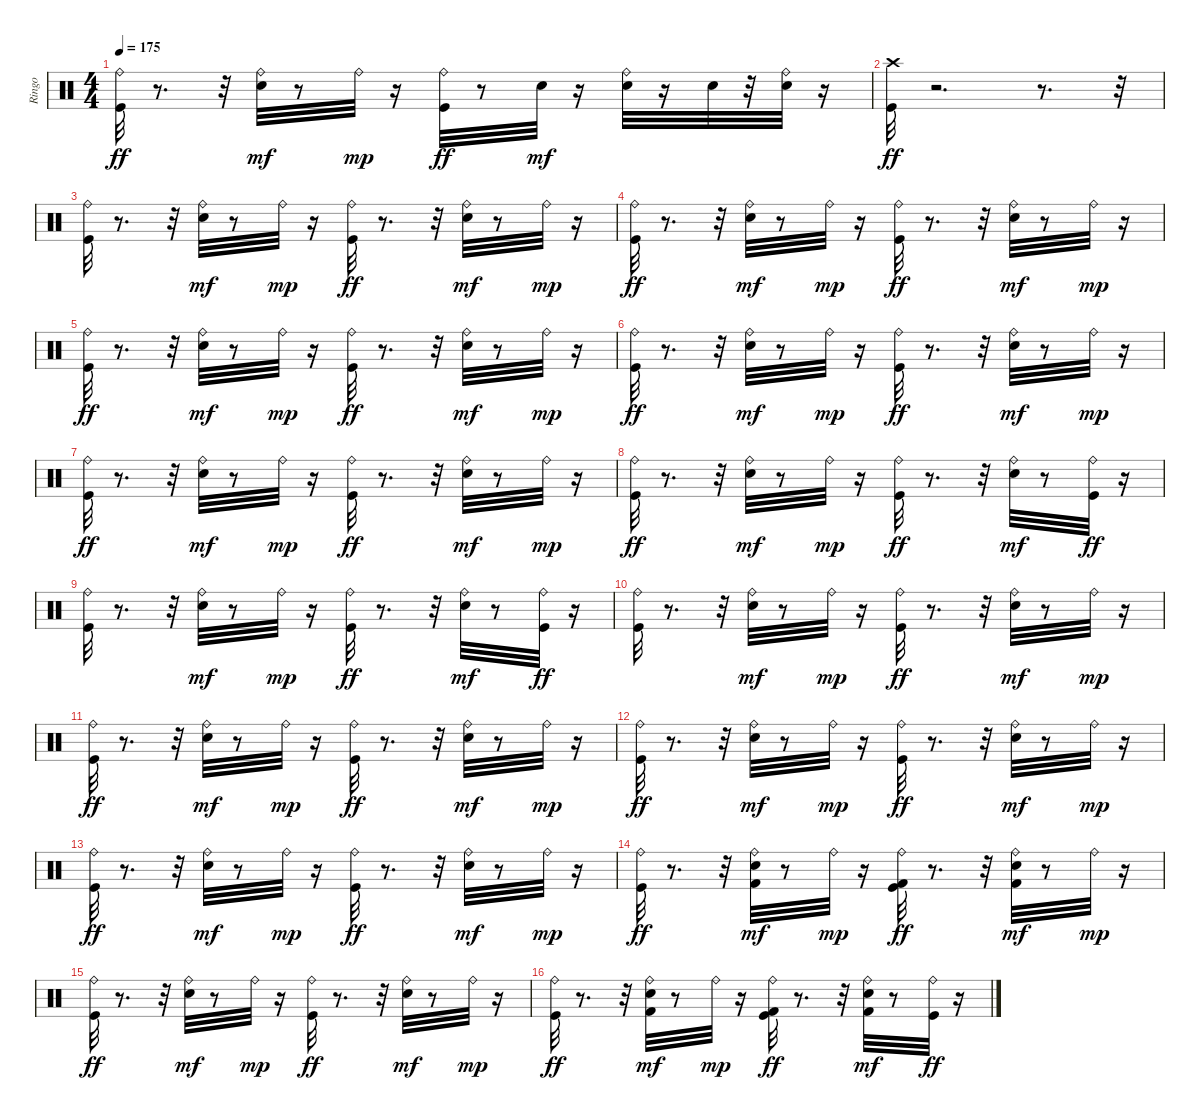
\track ("Ringo" "Ringo") {instrument percussion}
\staff {score}
\articulation defaults
\ts (4 4)
\tempo 175
\clef neutral
\ks c
("Ride (bell)" "Kick (hit)").32{dy ff} r.8{d} r.32 ("Ride (bell)" "Snare (hit) 2").32{dy mf} r.8 "Ride (bell)".32{dy mp} r.16 ("Ride (bell)" "Kick (hit)").32{dy ff} r.8 "Snare (hit) 2".32{dy mf} r.16 ("Ride (bell)" "Snare (hit) 2").32 r.16 "Snare (hit) 2".32 r.32 ("Ride (bell)" "Snare (hit) 2").32 r.16 |
("Kick (hit)" "Crash high (hit)").32{dy ff} r.2{d} r.8{d} r.32 |
("Ride (bell)" "Kick (hit)").32 r.8{d} r.32 ("Ride (bell)" "Snare (hit) 2").32{dy mf} r.8 "Ride (bell)".32{dy mp} r.16 ("Ride (bell)" "Kick (hit)").32{dy ff} r.8{d} r.32 ("Ride (bell)" "Snare (hit) 2").32{dy mf} r.8 "Ride (bell)".32{dy mp} r.16 |
("Ride (bell)" "Kick (hit)").32{dy ff} r.8{d} r.32 ("Ride (bell)" "Snare (hit) 2").32{dy mf} r.8 "Ride (bell)".32{dy mp} r.16 ("Ride (bell)" "Kick (hit)").32{dy ff} r.8{d} r.32 ("Ride (bell)" "Snare (hit) 2").32{dy mf} r.8 "Ride (bell)".32{dy mp} r.16 |
("Ride (bell)" "Kick (hit)").32{dy ff} r.8{d} r.32 ("Ride (bell)" "Snare (hit) 2").32{dy mf} r.8 "Ride (bell)".32{dy mp} r.16 ("Ride (bell)" "Kick (hit)").32{dy ff} r.8{d} r.32 ("Ride (bell)" "Snare (hit) 2").32{dy mf} r.8 "Ride (bell)".32{dy mp} r.16 |
("Ride (bell)" "Kick (hit)").32{dy ff} r.8{d} r.32 ("Ride (bell)" "Snare (hit) 2").32{dy mf} r.8 "Ride (bell)".32{dy mp} r.16 ("Ride (bell)" "Kick (hit)").32{dy ff} r.8{d} r.32 ("Ride (bell)" "Snare (hit) 2").32{dy mf} r.8 "Ride (bell)".32{dy mp} r.16 |
("Ride (bell)" "Kick (hit)").32{dy ff} r.8{d} r.32 ("Ride (bell)" "Snare (hit) 2").32{dy mf} r.8 "Ride (bell)".32{dy mp} r.16 ("Ride (bell)" "Kick (hit)").32{dy ff} r.8{d} r.32 ("Ride (bell)" "Snare (hit) 2").32{dy mf} r.8 "Ride (bell)".32{dy mp} r.16 |
("Ride (bell)" "Kick (hit)").32{dy ff} r.8{d} r.32 ("Ride (bell)" "Snare (hit) 2").32{dy mf} r.8 "Ride (bell)".32{dy mp} r.16 ("Ride (bell)" "Kick (hit)").32{dy ff} r.8{d} r.32 ("Ride (bell)" "Snare (hit) 2").32{dy mf} r.8 ("Ride (bell)" "Kick (hit)").32{dy ff} r.16 |
("Ride (bell)" "Kick (hit)").32 r.8{d} r.32 ("Ride (bell)" "Snare (hit) 2").32{dy mf} r.8 "Ride (bell)".32{dy mp} r.16 ("Ride (bell)" "Kick (hit)").32{dy ff} r.8{d} r.32 ("Ride (bell)" "Snare (hit) 2").32{dy mf} r.8 ("Ride (bell)" "Kick (hit)").32{dy ff} r.16 |
("Ride (bell)" "Kick (hit)").32 r.8{d} r.32 ("Ride (bell)" "Snare (hit) 2").32{dy mf} r.8 "Ride (bell)".32{dy mp} r.16 ("Ride (bell)" "Kick (hit)").32{dy ff} r.8{d} r.32 ("Ride (bell)" "Snare (hit) 2").32{dy mf} r.8 "Ride (bell)".32{dy mp} r.16 |
("Ride (bell)" "Kick (hit)").32{dy ff} r.8{d} r.32 ("Ride (bell)" "Snare (hit) 2").32{dy mf} r.8 "Ride (bell)".32{dy mp} r.16 ("Ride (bell)" "Kick (hit)").32{dy ff} r.8{d} r.32 ("Ride (bell)" "Snare (hit) 2").32{dy mf} r.8 "Ride (bell)".32{dy mp} r.16 |
("Ride (bell)" "Kick (hit)").32{dy ff} r.8{d} r.32 ("Ride (bell)" "Snare (hit) 2").32{dy mf} r.8 "Ride (bell)".32{dy mp} r.16 ("Ride (bell)" "Kick (hit)").32{dy ff} r.8{d} r.32 ("Ride (bell)" "Snare (hit) 2").32{dy mf} r.8 "Ride (bell)".32{dy mp} r.16 |
("Ride (bell)" "Kick (hit)").32{dy ff} r.8{d} r.32 ("Ride (bell)" "Snare (hit) 2").32{dy mf} r.8 "Ride (bell)".32{dy mp} r.16 ("Ride (bell)" "Kick (hit)").32{dy ff} r.8{d} r.32 ("Ride (bell)" "Snare (hit) 2").32{dy mf} r.8 "Ride (bell)".32{dy mp} r.16 |
("Ride (bell)" "Kick (hit)").32{dy ff} r.8{d} r.32 ("Ride (bell)" "Snare (hit) 2" "Kick (hit) 2").32{dy mf} r.8 "Ride (bell)".32{dy mp} r.16 ("Ride (bell)" "Kick (hit)" "Kick (hit) 2").32{dy ff} r.8{d} r.32 ("Ride (bell)" "Snare (hit) 2" "Kick (hit) 2").32{dy mf} r.8 "Ride (bell)".32{dy mp} r.16 |
("Ride (bell)" "Kick (hit)").32{dy ff} r.8{d} r.32 ("Ride (bell)" "Snare (hit) 2").32{dy mf} r.8 "Ride (bell)".32{dy mp} r.16 ("Ride (bell)" "Kick (hit)").32{dy ff} r.8{d} r.32 ("Ride (bell)" "Snare (hit) 2").32{dy mf} r.8 "Ride (bell)".32{dy mp} r.16 |
("Ride (bell)" "Kick (hit)").32{dy ff} r.8{d} r.32 ("Ride (bell)" "Snare (hit) 2" "Kick (hit) 2").32{dy mf} r.8 "Ride (bell)".32{dy mp} r.16 ("Ride (bell)" "Kick (hit)" "Kick (hit) 2").32{dy ff} r.8{d} r.32 ("Ride (bell)" "Snare (hit) 2" "Kick (hit) 2").32{dy mf} r.8 ("Ride (bell)" "Kick (hit)").32{dy ff} r.16
